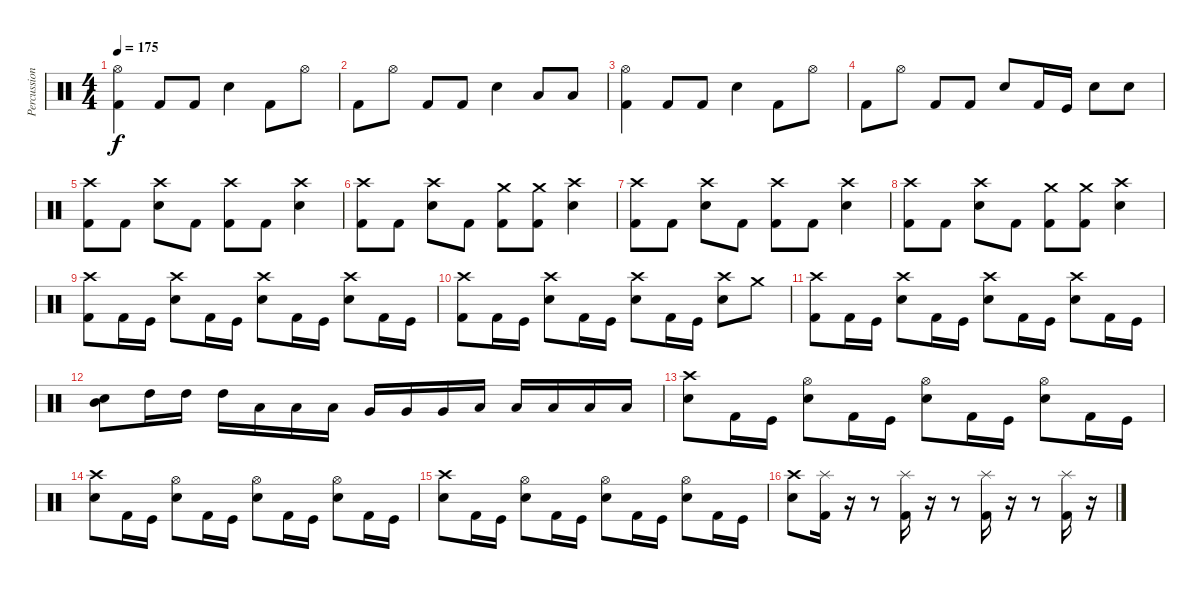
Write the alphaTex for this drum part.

\track ("Percussion" "Percussion") {instrument percussion}
\staff {score}
\articulation defaults
\ts (4 4)
\tempo 175
\clef neutral
\ks c
("Kick (hit) 2" "Hi-Hat (open)").4{dy f} "Kick (hit) 2".8 "Kick (hit) 2".8 "Snare (hit) 2".4 "Kick (hit) 2".8 "Hi-Hat (open)".8 |
"Kick (hit) 2".8 "Hi-Hat (open)".8 "Kick (hit) 2".8 "Kick (hit) 2".8 "Snare (hit) 2".4 "Low Tom (hit)".8 "Low Floor Tom (hit)".8 |
("Kick (hit) 2" "Hi-Hat (open)").4 "Kick (hit) 2".8 "Kick (hit) 2".8 "Snare (hit) 2".4 "Kick (hit) 2".8 "Hi-Hat (open)".8 |
"Kick (hit) 2".8 "Hi-Hat (open)".8 "Kick (hit) 2".8 "Kick (hit) 2".8 "Snare (hit) 2".8 "Kick (hit) 2".16 "Kick (hit)".16 "Snare (hit) 2".8 "Snare (hit) 2".8 |
("Kick (hit) 2" "Crash high (hit)").8 "Kick (hit) 2".8 ("Snare (hit) 2" "Crash high (hit)").8 "Kick (hit) 2".8 ("Kick (hit) 2" "Crash high (hit)").8 "Kick (hit) 2".8 ("Snare (hit) 2" "Crash high (hit)").4 |
("Kick (hit) 2" "Crash high (hit)").8 "Kick (hit) 2".8 ("Snare (hit) 2" "Crash high (hit)").8 "Kick (hit) 2".8 ("Kick (hit) 2" "Crash medium (hit)").8 ("Kick (hit) 2" "Crash medium (hit)").8 ("Snare (hit) 2" "Crash high (hit)").4 |
("Kick (hit) 2" "Crash high (hit)").8 "Kick (hit) 2".8 ("Snare (hit) 2" "Crash high (hit)").8 "Kick (hit) 2".8 ("Kick (hit) 2" "Crash high (hit)").8 "Kick (hit) 2".8 ("Snare (hit) 2" "Crash high (hit)").4 |
("Kick (hit) 2" "Crash high (hit)").8 "Kick (hit) 2".8 ("Snare (hit) 2" "Crash high (hit)").8 "Kick (hit) 2".8 ("Kick (hit) 2" "Crash medium (hit)").8 ("Kick (hit) 2" "Crash medium (hit)").8 ("Snare (hit) 2" "Crash high (hit)").4 |
("Kick (hit) 2" "Crash high (hit)").8 "Kick (hit) 2".16 "Kick (hit)".16 ("Snare (hit) 2" "Crash high (hit)").8 "Kick (hit) 2".16 "Kick (hit)".16 ("Snare (hit) 2" "Crash high (hit)").8 "Kick (hit) 2".16 "Kick (hit)".16 ("Snare (hit) 2" "Crash high (hit)").8 "Kick (hit) 2".16 "Kick (hit)".16 |
("Kick (hit) 2" "Crash high (hit)").8 "Kick (hit) 2".16 "Kick (hit)".16 ("Snare (hit) 2" "Crash high (hit)").8 "Kick (hit) 2".16 "Kick (hit)".16 ("Snare (hit) 2" "Crash high (hit)").8 "Kick (hit) 2".16 "Kick (hit)".16 ("Snare (hit) 2" "Crash high (hit)").8 "Crash medium (hit)".8 |
("Kick (hit) 2" "Crash high (hit)").8 "Kick (hit) 2".16 "Kick (hit)".16 ("Snare (hit) 2" "Crash high (hit)").8 "Kick (hit) 2".16 "Kick (hit)".16 ("Snare (hit) 2" "Crash high (hit)").8 "Kick (hit) 2".16 "Kick (hit)".16 ("Snare (hit) 2" "Crash high (hit)").8 "Kick (hit) 2".16 "Kick (hit)".16 |
("Snare (hit) 2" "Mid Tom (hit)").8 "High Tom (hit)".16 "High Tom (hit)".16 "High Tom (hit)".16 "Low Tom (hit)".16 "Low Tom (hit)".16 "Low Tom (hit)".16 "Very Low Tom (hit)".16 "Very Low Tom (hit)".16 "Very Low Tom (hit)".16 "Low Floor Tom (hit)".16 "Low Floor Tom (hit)".16 "Low Floor Tom (hit)".16 "Low Floor Tom (hit)".16 "Low Floor Tom (hit)".16 |
("Snare (hit) 2" "Crash high (hit)").8 "Kick (hit) 2".16 "Kick (hit)".16 ("Snare (hit) 2" "Hi-Hat (open)").8 "Kick (hit) 2".16 "Kick (hit)".16 ("Snare (hit) 2" "Hi-Hat (open)").8 "Kick (hit) 2".16 "Kick (hit)".16 ("Snare (hit) 2" "Hi-Hat (open)").8 "Kick (hit) 2".16 "Kick (hit)".16 |
("Snare (hit) 2" "Crash high (hit)").8 "Kick (hit) 2".16 "Kick (hit)".16 ("Snare (hit) 2" "Hi-Hat (open)").8 "Kick (hit) 2".16 "Kick (hit)".16 ("Snare (hit) 2" "Hi-Hat (open)").8 "Kick (hit) 2".16 "Kick (hit)".16 ("Snare (hit) 2" "Hi-Hat (open)").8 "Kick (hit) 2".16 "Kick (hit)".16 |
("Snare (hit) 2" "Crash high (hit)").8 "Kick (hit) 2".16 "Kick (hit)".16 ("Snare (hit) 2" "Hi-Hat (open)").8 "Kick (hit) 2".16 "Kick (hit)".16 ("Snare (hit) 2" "Hi-Hat (open)").8 "Kick (hit) 2".16 "Kick (hit)".16 ("Snare (hit) 2" "Hi-Hat (open)").8 "Kick (hit) 2".16 "Kick (hit)".16 |
("Snare (hit) 2" "Crash high (hit)").8 ("Kick (hit) 2" "Splash (hit)").16 r.16 r.8 ("Kick (hit) 2" "Splash (hit)").16 r.16 r.8 ("Kick (hit) 2" "Splash (hit)").16 r.16 r.8 ("Kick (hit) 2" "Splash (hit)").16 r.16
